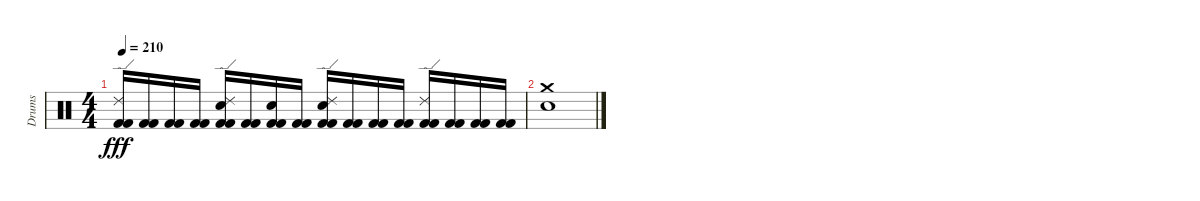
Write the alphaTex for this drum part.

\track ("Drums" "Drums") {instrument percussion}
\staff {score}
\articulation defaults
\ts (4 4)
\tempo 210
\clef neutral
\ks c
("Ride (edge) 2" "Kick (hit) 2" "Kick (hit) 2").16{dy fff} ("Kick (hit) 2" "Kick (hit) 2").16 ("Kick (hit) 2" "Kick (hit) 2").16 ("Kick (hit) 2" "Kick (hit) 2").16 ("Ride (edge) 2" "Electric Snare (hit)" "Kick (hit) 2" "Kick (hit) 2").16 ("Kick (hit) 2" "Kick (hit) 2").16 ("Electric Snare (hit)" "Kick (hit) 2" "Kick (hit) 2").16 ("Kick (hit) 2" "Kick (hit) 2").16 ("Ride (edge) 2" "Electric Snare (hit)" "Kick (hit) 2" "Kick (hit) 2").16 ("Kick (hit) 2" "Kick (hit) 2").16 ("Kick (hit) 2" "Kick (hit) 2").16 ("Kick (hit) 2" "Kick (hit) 2").16 ("Ride (edge) 2" "Kick (hit) 2" "Kick (hit) 2").16 ("Kick (hit) 2" "Kick (hit) 2").16 ("Kick (hit) 2" "Kick (hit) 2").16 ("Kick (hit) 2" "Kick (hit) 2").16 |
("Electric Snare (hit)" "Crash medium (hit)").1
